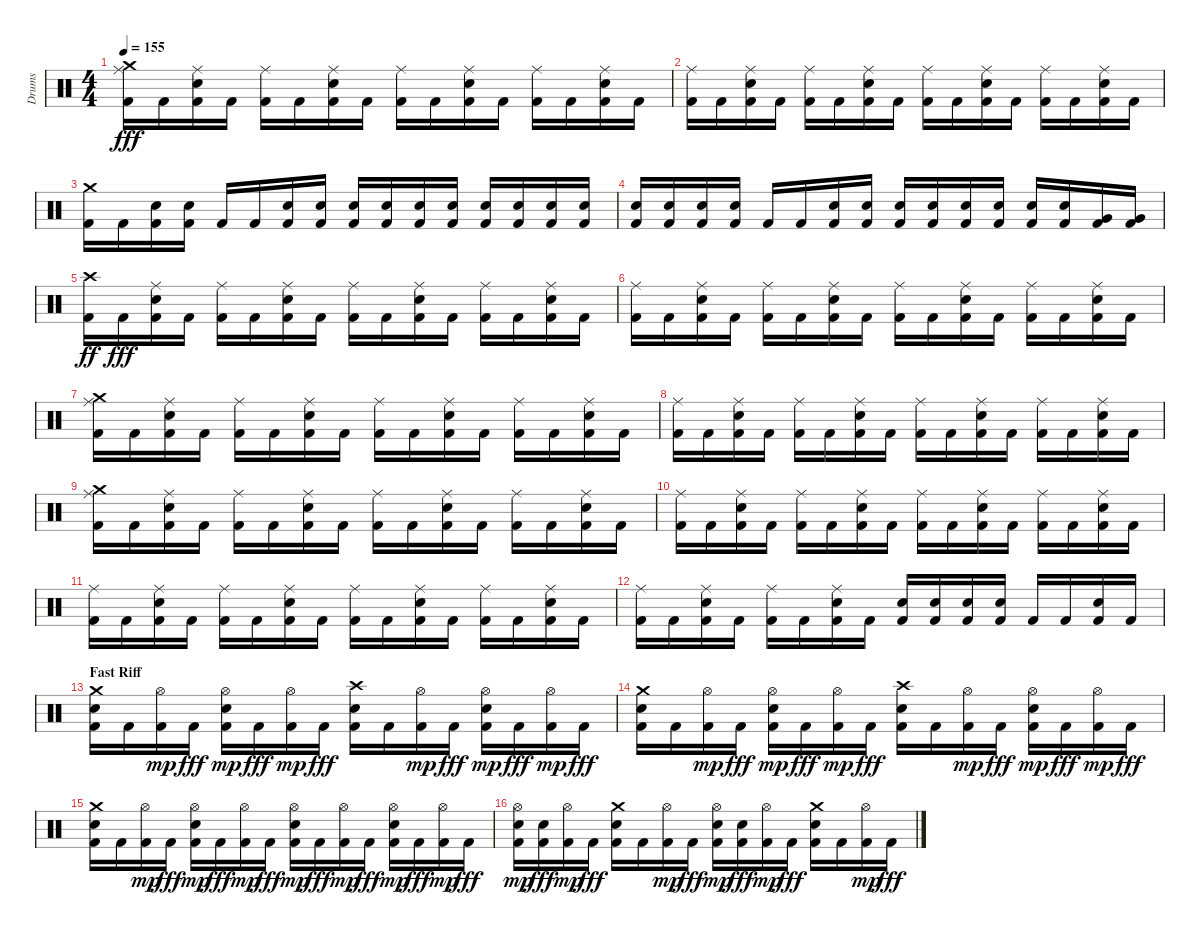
\track ("Drums" "Drums") {instrument percussion}
\staff {score}
\articulation defaults
\ts (4 4)
\tempo 155
\clef neutral
\ks c
("Kick (hit) 2" "Ride (middle)" "Crash medium (hit)").16{dy fff} "Kick (hit) 2".16 ("Kick (hit) 2" "Ride (middle)" "Snare (hit) 2").16 "Kick (hit) 2".16 ("Kick (hit) 2" "Ride (middle)").16 "Kick (hit) 2".16 ("Kick (hit) 2" "Ride (middle)" "Snare (hit) 2").16 "Kick (hit) 2".16 ("Kick (hit) 2" "Ride (middle)").16 "Kick (hit) 2".16 ("Kick (hit) 2" "Ride (middle)" "Snare (hit) 2").16 "Kick (hit) 2".16 ("Kick (hit) 2" "Ride (middle)").16 "Kick (hit) 2".16 ("Kick (hit) 2" "Ride (middle)" "Snare (hit) 2").16 "Kick (hit) 2".16 |
("Kick (hit) 2" "Ride (middle)").16 "Kick (hit) 2".16 ("Kick (hit) 2" "Ride (middle)" "Snare (hit) 2").16 "Kick (hit) 2".16 ("Kick (hit) 2" "Ride (middle)").16 "Kick (hit) 2".16 ("Kick (hit) 2" "Ride (middle)" "Snare (hit) 2").16 "Kick (hit) 2".16 ("Kick (hit) 2" "Ride (middle)").16 "Kick (hit) 2".16 ("Kick (hit) 2" "Ride (middle)" "Snare (hit) 2").16 "Kick (hit) 2".16 ("Kick (hit) 2" "Ride (middle)").16 "Kick (hit) 2".16 ("Kick (hit) 2" "Ride (middle)" "Snare (hit) 2").16 "Kick (hit) 2".16 |
("Kick (hit) 2" "Crash medium (hit)").16 "Kick (hit) 2".16 ("Kick (hit) 2" "Snare (hit) 2").16 ("Kick (hit) 2" "Snare (hit) 2").16 "Kick (hit) 2".16 "Kick (hit) 2".16 ("Kick (hit) 2" "Snare (hit) 2").16 ("Kick (hit) 2" "Snare (hit) 2").16 ("Kick (hit) 2" "Snare (hit) 2").16 ("Kick (hit) 2" "Snare (hit) 2").16 ("Kick (hit) 2" "Snare (hit) 2").16 ("Kick (hit) 2" "Snare (hit) 2").16 ("Kick (hit) 2" "Snare (hit) 2").16 ("Kick (hit) 2" "Snare (hit) 2").16 ("Kick (hit) 2" "Snare (hit) 2").16 ("Kick (hit) 2" "Snare (hit) 2").16 |
("Kick (hit) 2" "Snare (hit) 2").16 ("Kick (hit) 2" "Snare (hit) 2").16 ("Kick (hit) 2" "Snare (hit) 2").16 ("Kick (hit) 2" "Snare (hit) 2").16 "Kick (hit) 2".16 "Kick (hit) 2".16 ("Kick (hit) 2" "Snare (hit) 2").16 ("Kick (hit) 2" "Snare (hit) 2").16 ("Kick (hit) 2" "Snare (hit) 2").16 ("Kick (hit) 2" "Snare (hit) 2").16 ("Kick (hit) 2" "Snare (hit) 2").16 ("Kick (hit) 2" "Snare (hit) 2").16 ("Kick (hit) 2" "Snare (hit) 2").16 ("Kick (hit) 2" "Snare (hit) 2").16 ("Kick (hit) 2" "Very Low Tom (hit)").16 ("Kick (hit) 2" "Very Low Tom (hit)").16 |
("Kick (hit) 2" "Crash high (hit)").16{dy ff} "Kick (hit) 2".16{dy fff} ("Kick (hit) 2" "Ride (middle)" "Snare (hit) 2").16 "Kick (hit) 2".16 ("Kick (hit) 2" "Ride (middle)").16 "Kick (hit) 2".16 ("Kick (hit) 2" "Ride (middle)" "Snare (hit) 2").16 "Kick (hit) 2".16 ("Kick (hit) 2" "Ride (middle)").16 "Kick (hit) 2".16 ("Kick (hit) 2" "Ride (middle)" "Snare (hit) 2").16 "Kick (hit) 2".16 ("Kick (hit) 2" "Ride (middle)").16 "Kick (hit) 2".16 ("Kick (hit) 2" "Ride (middle)" "Snare (hit) 2").16 "Kick (hit) 2".16 |
("Kick (hit) 2" "Ride (middle)").16 "Kick (hit) 2".16 ("Kick (hit) 2" "Ride (middle)" "Snare (hit) 2").16 "Kick (hit) 2".16 ("Kick (hit) 2" "Ride (middle)").16 "Kick (hit) 2".16 ("Kick (hit) 2" "Ride (middle)" "Snare (hit) 2").16 "Kick (hit) 2".16 ("Kick (hit) 2" "Ride (middle)").16 "Kick (hit) 2".16 ("Kick (hit) 2" "Ride (middle)" "Snare (hit) 2").16 "Kick (hit) 2".16 ("Kick (hit) 2" "Ride (middle)").16 "Kick (hit) 2".16 ("Kick (hit) 2" "Ride (middle)" "Snare (hit) 2").16 "Kick (hit) 2".16 |
("Kick (hit) 2" "Ride (middle)" "Crash medium (hit)").16 "Kick (hit) 2".16 ("Kick (hit) 2" "Ride (middle)" "Snare (hit) 2").16 "Kick (hit) 2".16 ("Kick (hit) 2" "Ride (middle)").16 "Kick (hit) 2".16 ("Kick (hit) 2" "Ride (middle)" "Snare (hit) 2").16 "Kick (hit) 2".16 ("Kick (hit) 2" "Ride (middle)").16 "Kick (hit) 2".16 ("Kick (hit) 2" "Ride (middle)" "Snare (hit) 2").16 "Kick (hit) 2".16 ("Kick (hit) 2" "Ride (middle)").16 "Kick (hit) 2".16 ("Kick (hit) 2" "Ride (middle)" "Snare (hit) 2").16 "Kick (hit) 2".16 |
("Kick (hit) 2" "Ride (middle)").16 "Kick (hit) 2".16 ("Kick (hit) 2" "Ride (middle)" "Snare (hit) 2").16 "Kick (hit) 2".16 ("Kick (hit) 2" "Ride (middle)").16 "Kick (hit) 2".16 ("Kick (hit) 2" "Ride (middle)" "Snare (hit) 2").16 "Kick (hit) 2".16 ("Kick (hit) 2" "Ride (middle)").16 "Kick (hit) 2".16 ("Kick (hit) 2" "Ride (middle)" "Snare (hit) 2").16 "Kick (hit) 2".16 ("Kick (hit) 2" "Ride (middle)").16 "Kick (hit) 2".16 ("Kick (hit) 2" "Ride (middle)" "Snare (hit) 2").16 "Kick (hit) 2".16 |
("Kick (hit) 2" "Ride (middle)" "Crash medium (hit)").16 "Kick (hit) 2".16 ("Kick (hit) 2" "Ride (middle)" "Snare (hit) 2").16 "Kick (hit) 2".16 ("Kick (hit) 2" "Ride (middle)").16 "Kick (hit) 2".16 ("Kick (hit) 2" "Ride (middle)" "Snare (hit) 2").16 "Kick (hit) 2".16 ("Kick (hit) 2" "Ride (middle)").16 "Kick (hit) 2".16 ("Kick (hit) 2" "Ride (middle)" "Snare (hit) 2").16 "Kick (hit) 2".16 ("Kick (hit) 2" "Ride (middle)").16 "Kick (hit) 2".16 ("Kick (hit) 2" "Ride (middle)" "Snare (hit) 2").16 "Kick (hit) 2".16 |
("Kick (hit) 2" "Ride (middle)").16 "Kick (hit) 2".16 ("Kick (hit) 2" "Ride (middle)" "Snare (hit) 2").16 "Kick (hit) 2".16 ("Kick (hit) 2" "Ride (middle)").16 "Kick (hit) 2".16 ("Kick (hit) 2" "Ride (middle)" "Snare (hit) 2").16 "Kick (hit) 2".16 ("Kick (hit) 2" "Ride (middle)").16 "Kick (hit) 2".16 ("Kick (hit) 2" "Ride (middle)" "Snare (hit) 2").16 "Kick (hit) 2".16 ("Kick (hit) 2" "Ride (middle)").16 "Kick (hit) 2".16 ("Kick (hit) 2" "Ride (middle)" "Snare (hit) 2").16 "Kick (hit) 2".16 |
("Kick (hit) 2" "Ride (middle)").16 "Kick (hit) 2".16 ("Kick (hit) 2" "Ride (middle)" "Snare (hit) 2").16 "Kick (hit) 2".16 ("Kick (hit) 2" "Ride (middle)").16 "Kick (hit) 2".16 ("Kick (hit) 2" "Ride (middle)" "Snare (hit) 2").16 "Kick (hit) 2".16 ("Kick (hit) 2" "Ride (middle)").16 "Kick (hit) 2".16 ("Kick (hit) 2" "Ride (middle)" "Snare (hit) 2").16 "Kick (hit) 2".16 ("Kick (hit) 2" "Ride (middle)").16 "Kick (hit) 2".16 ("Kick (hit) 2" "Ride (middle)" "Snare (hit) 2").16 "Kick (hit) 2".16 |
("Kick (hit) 2" "Ride (middle)").16 "Kick (hit) 2".16 ("Kick (hit) 2" "Ride (middle)" "Snare (hit) 2").16 "Kick (hit) 2".16 ("Kick (hit) 2" "Ride (middle)").16 "Kick (hit) 2".16 ("Kick (hit) 2" "Ride (middle)" "Snare (hit) 2").16 "Kick (hit) 2".16 ("Kick (hit) 2" "Snare (hit) 2").16 ("Kick (hit) 2" "Snare (hit) 2").16 ("Kick (hit) 2" "Snare (hit) 2").16 ("Kick (hit) 2" "Snare (hit) 2").16 "Kick (hit) 2".16 "Kick (hit) 2".16 ("Kick (hit) 2" "Snare (hit) 2").16 "Kick (hit) 2".16 |
\section ("" "Fast Riff")
("Kick (hit) 2" "Snare (hit) 2" "Crash medium (hit)").16 "Kick (hit) 2".16 ("Kick (hit) 2" "Hi-Hat (open)").16{dy mp} "Kick (hit) 2".16{dy fff} ("Kick (hit) 2" "Hi-Hat (open)" "Snare (hit) 2").16{dy mp} "Kick (hit) 2".16{dy fff} ("Kick (hit) 2" "Hi-Hat (open)").16{dy mp} "Kick (hit) 2".16{dy fff} ("Kick (hit) 2" "Snare (hit) 2" "Crash high (hit)").16 "Kick (hit) 2".16 ("Kick (hit) 2" "Hi-Hat (open)").16{dy mp} "Kick (hit) 2".16{dy fff} ("Kick (hit) 2" "Hi-Hat (open)" "Snare (hit) 2").16{dy mp} "Kick (hit) 2".16{dy fff} ("Kick (hit) 2" "Hi-Hat (open)").16{dy mp} "Kick (hit) 2".16{dy fff} |
("Kick (hit) 2" "Snare (hit) 2" "Crash medium (hit)").16 "Kick (hit) 2".16 ("Kick (hit) 2" "Hi-Hat (open)").16{dy mp} "Kick (hit) 2".16{dy fff} ("Kick (hit) 2" "Hi-Hat (open)" "Snare (hit) 2").16{dy mp} "Kick (hit) 2".16{dy fff} ("Kick (hit) 2" "Hi-Hat (open)").16{dy mp} "Kick (hit) 2".16{dy fff} ("Kick (hit) 2" "Snare (hit) 2" "Crash high (hit)").16 "Kick (hit) 2".16 ("Kick (hit) 2" "Hi-Hat (open)").16{dy mp} "Kick (hit) 2".16{dy fff} ("Kick (hit) 2" "Hi-Hat (open)" "Snare (hit) 2").16{dy mp} "Kick (hit) 2".16{dy fff} ("Kick (hit) 2" "Hi-Hat (open)").16{dy mp} "Kick (hit) 2".16{dy fff} |
("Kick (hit) 2" "Snare (hit) 2" "Crash medium (hit)").16 "Kick (hit) 2".16 ("Kick (hit) 2" "Hi-Hat (open)").16{dy mp} "Kick (hit) 2".16{dy fff} ("Kick (hit) 2" "Hi-Hat (open)" "Snare (hit) 2").16{dy mp} "Kick (hit) 2".16{dy fff} ("Kick (hit) 2" "Hi-Hat (open)").16{dy mp} "Kick (hit) 2".16{dy fff} ("Kick (hit) 2" "Hi-Hat (open)" "Snare (hit) 2").16{dy mp} "Kick (hit) 2".16{dy fff} ("Kick (hit) 2" "Hi-Hat (open)").16{dy mp} "Kick (hit) 2".16{dy fff} ("Kick (hit) 2" "Hi-Hat (open)" "Snare (hit) 2").16{dy mp} "Kick (hit) 2".16{dy fff} ("Kick (hit) 2" "Hi-Hat (open)").16{dy mp} "Kick (hit) 2".16{dy fff} |
("Kick (hit) 2" "Hi-Hat (open)" "Snare (hit) 2").16{dy mp} ("Kick (hit) 2" "Snare (hit) 2").16{dy fff} ("Kick (hit) 2" "Hi-Hat (open)").16{dy mp} "Kick (hit) 2".16{dy fff} ("Kick (hit) 2" "Snare (hit) 2" "Crash medium (hit)").16 "Kick (hit) 2".16 ("Kick (hit) 2" "Hi-Hat (open)").16{dy mp} "Kick (hit) 2".16{dy fff} ("Kick (hit) 2" "Hi-Hat (open)" "Snare (hit) 2").16{dy mp} ("Kick (hit) 2" "Snare (hit) 2").16{dy fff} ("Kick (hit) 2" "Hi-Hat (open)").16{dy mp} "Kick (hit) 2".16{dy fff} ("Kick (hit) 2" "Snare (hit) 2" "Crash medium (hit)").16 "Kick (hit) 2".16 ("Kick (hit) 2" "Hi-Hat (open)").16{dy mp} "Kick (hit) 2".16{dy fff}
